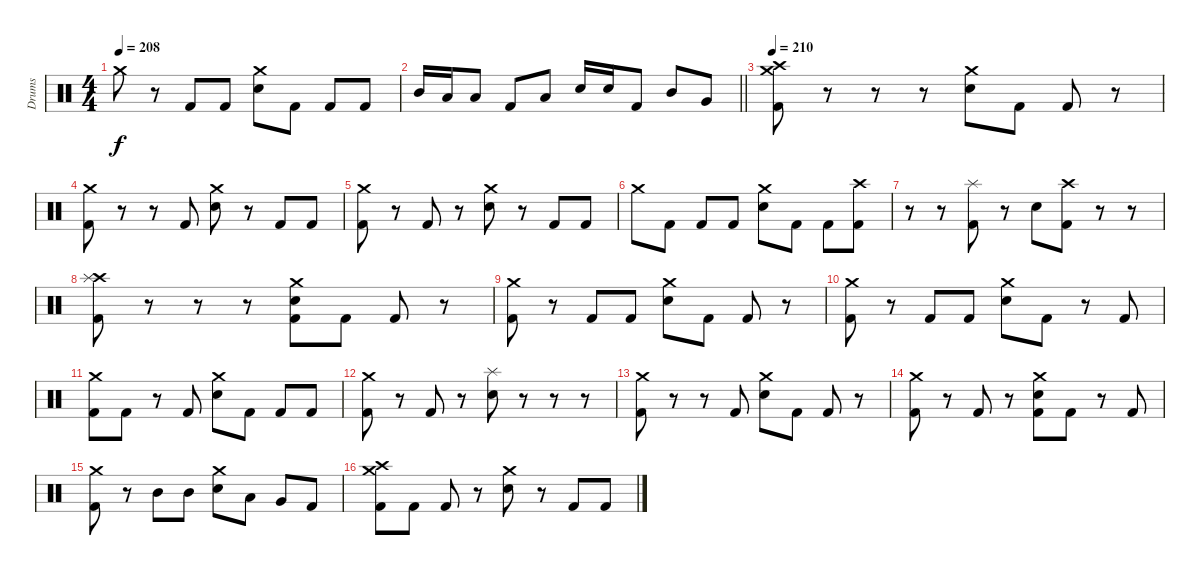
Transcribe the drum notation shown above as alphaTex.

\track ("Drums" "Drums") {instrument percussion}
\staff {score}
\articulation defaults
\ts (4 4)
\tempo 208
\clef neutral
\ks c "Crash medium (hit)".8{dy f}
r.8 "Kick (hit) 2".8 "Kick (hit) 2".8 ("Crash medium (hit)" "Electric Snare (hit)").8 "Kick (hit) 2".8 "Kick (hit) 2".8 "Kick (hit) 2".8 |
\barLineRight lightlight "Mid Tom (hit)".16 "Low Tom (hit)".16 "Low Floor Tom (hit)".8 "Kick (hit) 2".8 "Low Tom (hit)".8 "Electric Snare (hit)".16 "Electric Snare (hit)".16 "Kick (hit) 2".8 "Mid Tom (hit)".8 "Very Low Tom (hit)".8
|
\section ("" "")
\tempo 209
\tempo 210
("Crash high (hit)" "Crash medium (hit)" "Kick (hit) 2").8 r.8 r.8 r.8 ("Crash medium (hit)" "Electric Snare (hit)").8 "Kick (hit) 2".8 "Kick (hit) 2".8 r.8 |
("Crash medium (hit)" "Kick (hit) 2").8 r.8 r.8 "Kick (hit) 2".8 ("Crash medium (hit)" "Electric Snare (hit)").8 r.8 "Kick (hit) 2".8 "Kick (hit) 2".8 |
("Crash medium (hit)" "Kick (hit) 2").8 r.8 "Kick (hit) 2".8 r.8 ("Crash medium (hit)" "Electric Snare (hit)").8 r.8 "Kick (hit) 2".8 "Kick (hit) 2".8 |
"Crash medium (hit)".8 "Kick (hit) 2".8 "Kick (hit) 2".8 "Kick (hit) 2".8 ("Crash medium (hit)" "Electric Snare (hit)").8 "Kick (hit) 2".8 "Kick (hit) 2".8 ("Crash high (hit)" "Kick (hit) 2").8 |
r.8 r.8 ("Splash (hit)" "Kick (hit) 2").8 r.8 "Electric Snare (hit)".8 ("Crash high (hit)" "Kick (hit) 2").8 r.8 r.8 |
("Crash high (hit)" "Splash (hit)" "Kick (hit) 2").8 r.8 r.8 r.8 ("Crash medium (hit)" "Electric Snare (hit)" "Kick (hit) 2").8 "Kick (hit) 2".8 "Kick (hit) 2".8 r.8 |
("Crash medium (hit)" "Kick (hit) 2").8 r.8 "Kick (hit) 2".8 "Kick (hit) 2".8 ("Crash medium (hit)" "Electric Snare (hit)").8 "Kick (hit) 2".8 "Kick (hit) 2".8 r.8 |
("Crash medium (hit)" "Kick (hit) 2").8 r.8 "Kick (hit) 2".8 "Kick (hit) 2".8 ("Crash medium (hit)" "Electric Snare (hit)").8 "Kick (hit) 2".8 r.8 "Kick (hit) 2".8 |
("Crash medium (hit)" "Kick (hit) 2").8 "Kick (hit) 2".8 r.8 "Kick (hit) 2".8 ("Crash medium (hit)" "Electric Snare (hit)").8 "Kick (hit) 2".8 "Kick (hit) 2".8 "Kick (hit) 2".8 |
("Crash medium (hit)" "Kick (hit) 2").8 r.8 "Kick (hit) 2".8 r.8 ("Splash (hit)" "Electric Snare (hit)").8 r.8 r.8 r.8 |
("Crash medium (hit)" "Kick (hit) 2").8 r.8 r.8 "Kick (hit) 2".8 ("Crash medium (hit)" "Electric Snare (hit)").8 "Kick (hit) 2".8 "Kick (hit) 2".8 r.8 |
("Crash medium (hit)" "Kick (hit) 2").8 r.8 "Kick (hit) 2".8 r.8 ("Crash medium (hit)" "Electric Snare (hit)" "Kick (hit) 2").8 "Kick (hit) 2".8 r.8 "Kick (hit) 2".8 |
("Crash medium (hit)" "Kick (hit) 2").8 r.8 "Mid Tom (hit)".8 "Mid Tom (hit)".8 ("Crash medium (hit)" "Electric Snare (hit)").8 "Low Tom (hit)".8 "Very Low Tom (hit)".8 "Kick (hit) 2".8 |
("Crash high (hit)" "Crash medium (hit)" "Kick (hit) 2").8 "Kick (hit) 2".8 "Kick (hit) 2".8 r.8 ("Crash medium (hit)" "Electric Snare (hit)").8 r.8 "Kick (hit) 2".8 "Kick (hit) 2".8
